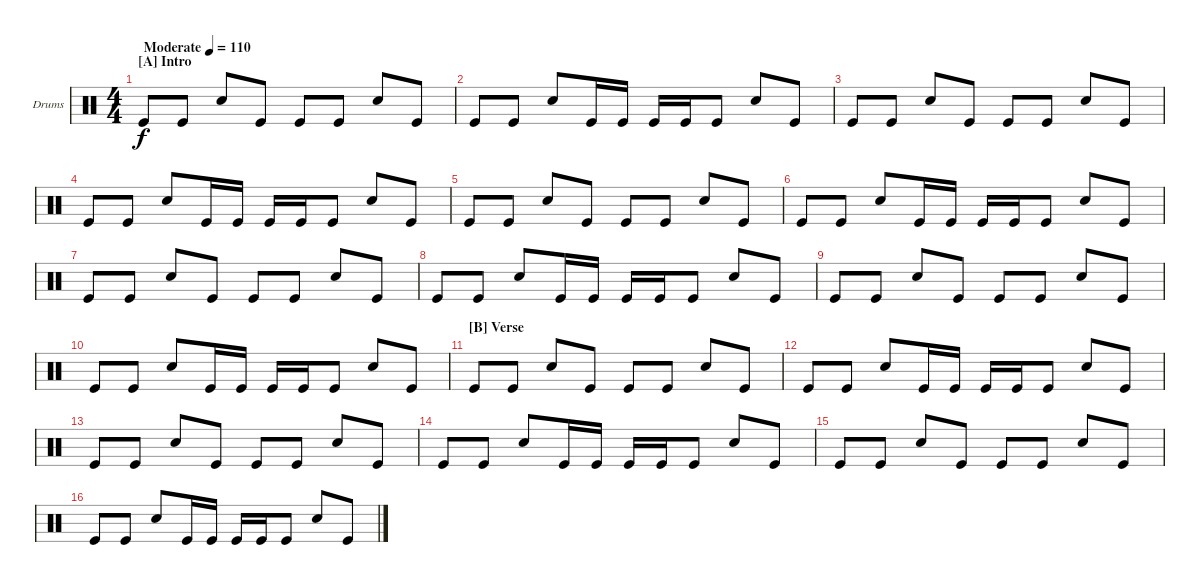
\bracketExtendMode groupsimilarinstruments
\firstSystemTrackNameOrientation horizontal
\otherSystemsTrackNameOrientation horizontal
\track ("Electric Drum Kit" "Drums") {instrument percussion}
\staff {score}
\articulation defaults
\ts (4 4)
\beaming (8 2 2 2 2)
\section ("A" "Intro")
\tempo (110 "Moderate")
\clef neutral
\ks c "Kick (hit)".8{dy f} "Kick (hit)".8 "Snare (hit) 2".8 "Kick (hit)".8 "Kick (hit)".8 "Kick (hit)".8 "Snare (hit) 2".8 "Kick (hit)".8
|
"Kick (hit)".8 "Kick (hit)".8 "Snare (hit) 2".8 "Kick (hit)".16 "Kick (hit)".16 "Kick (hit)".16 "Kick (hit)".16 "Kick (hit)".8 "Snare (hit) 2".8 "Kick (hit)".8 |
"Kick (hit)".8 "Kick (hit)".8 "Snare (hit) 2".8 "Kick (hit)".8 "Kick (hit)".8 "Kick (hit)".8 "Snare (hit) 2".8 "Kick (hit)".8 |
"Kick (hit)".8 "Kick (hit)".8 "Snare (hit) 2".8 "Kick (hit)".16 "Kick (hit)".16 "Kick (hit)".16 "Kick (hit)".16 "Kick (hit)".8 "Snare (hit) 2".8 "Kick (hit)".8 |
"Kick (hit)".8 "Kick (hit)".8 "Snare (hit) 2".8 "Kick (hit)".8 "Kick (hit)".8 "Kick (hit)".8 "Snare (hit) 2".8 "Kick (hit)".8 |
"Kick (hit)".8 "Kick (hit)".8 "Snare (hit) 2".8 "Kick (hit)".16 "Kick (hit)".16 "Kick (hit)".16 "Kick (hit)".16 "Kick (hit)".8 "Snare (hit) 2".8 "Kick (hit)".8 |
"Kick (hit)".8 "Kick (hit)".8 "Snare (hit) 2".8 "Kick (hit)".8 "Kick (hit)".8 "Kick (hit)".8 "Snare (hit) 2".8 "Kick (hit)".8 |
"Kick (hit)".8 "Kick (hit)".8 "Snare (hit) 2".8 "Kick (hit)".16 "Kick (hit)".16 "Kick (hit)".16 "Kick (hit)".16 "Kick (hit)".8 "Snare (hit) 2".8 "Kick (hit)".8 |
"Kick (hit)".8 "Kick (hit)".8 "Snare (hit) 2".8 "Kick (hit)".8 "Kick (hit)".8 "Kick (hit)".8 "Snare (hit) 2".8 "Kick (hit)".8 |
"Kick (hit)".8 "Kick (hit)".8 "Snare (hit) 2".8 "Kick (hit)".16 "Kick (hit)".16 "Kick (hit)".16 "Kick (hit)".16 "Kick (hit)".8 "Snare (hit) 2".8 "Kick (hit)".8 |
\section ("B" "Verse")
"Kick (hit)".8 "Kick (hit)".8 "Snare (hit) 2".8 "Kick (hit)".8 "Kick (hit)".8 "Kick (hit)".8 "Snare (hit) 2".8 "Kick (hit)".8 |
"Kick (hit)".8 "Kick (hit)".8 "Snare (hit) 2".8 "Kick (hit)".16 "Kick (hit)".16 "Kick (hit)".16 "Kick (hit)".16 "Kick (hit)".8 "Snare (hit) 2".8 "Kick (hit)".8 |
"Kick (hit)".8 "Kick (hit)".8 "Snare (hit) 2".8 "Kick (hit)".8 "Kick (hit)".8 "Kick (hit)".8 "Snare (hit) 2".8 "Kick (hit)".8 |
"Kick (hit)".8 "Kick (hit)".8 "Snare (hit) 2".8 "Kick (hit)".16 "Kick (hit)".16 "Kick (hit)".16 "Kick (hit)".16 "Kick (hit)".8 "Snare (hit) 2".8 "Kick (hit)".8 |
"Kick (hit)".8 "Kick (hit)".8 "Snare (hit) 2".8 "Kick (hit)".8 "Kick (hit)".8 "Kick (hit)".8 "Snare (hit) 2".8 "Kick (hit)".8 |
"Kick (hit)".8 "Kick (hit)".8 "Snare (hit) 2".8 "Kick (hit)".16 "Kick (hit)".16 "Kick (hit)".16 "Kick (hit)".16 "Kick (hit)".8 "Snare (hit) 2".8 "Kick (hit)".8
